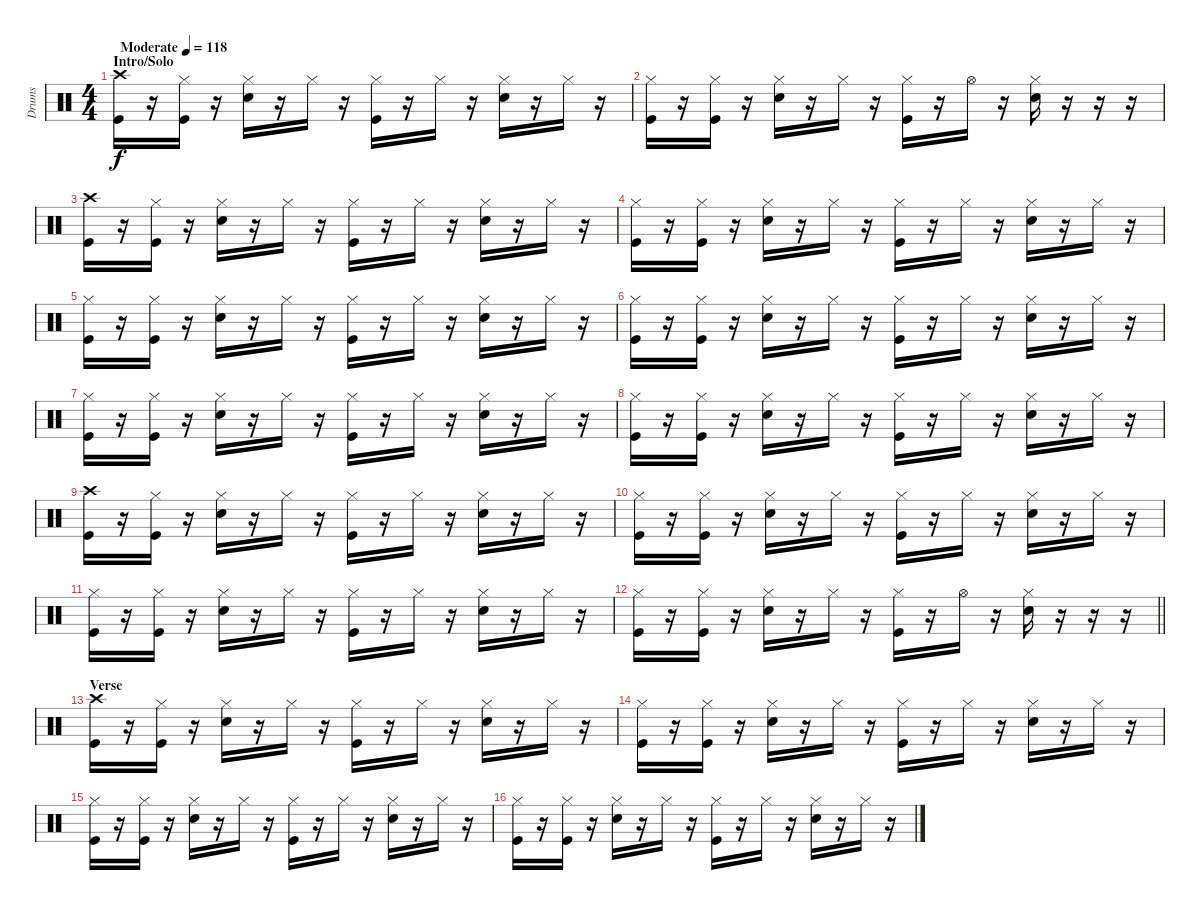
\track ("Drums" "Drums") {instrument percussion}
\staff {score}
\articulation defaults
\ts (4 4)
\section ("" "Intro/Solo")
\tempo (118 "Moderate")
\clef neutral
\ks c
("Crash high (hit)" "Kick (hit)").16{dy f} r.16 ("Hi-Hat (closed)" "Kick (hit)").16 r.16 ("Hi-Hat (closed)" "Snare (hit) 2").16 r.16 "Hi-Hat (closed)".16 r.16 ("Hi-Hat (closed)" "Kick (hit)").16 r.16 "Hi-Hat (closed)".16 r.16 ("Hi-Hat (closed)" "Snare (hit) 2").16 r.16 "Hi-Hat (closed)".16 r.16 |
("Hi-Hat (closed)" "Kick (hit)").16 r.16 ("Hi-Hat (closed)" "Kick (hit)").16 r.16 ("Hi-Hat (closed)" "Snare (hit) 2").16 r.16 "Hi-Hat (closed)".16 r.16 ("Hi-Hat (closed)" "Kick (hit)").16 r.16 "Hi-Hat (open)".16 r.16 ("Hi-Hat (closed)" "Snare (hit) 2").16 r.16 r.16 r.16 |
("Crash high (hit)" "Kick (hit)").16 r.16 ("Hi-Hat (closed)" "Kick (hit)").16 r.16 ("Hi-Hat (closed)" "Snare (hit) 2").16 r.16 "Hi-Hat (closed)".16 r.16 ("Hi-Hat (closed)" "Kick (hit)").16 r.16 "Hi-Hat (closed)".16 r.16 ("Hi-Hat (closed)" "Snare (hit) 2").16 r.16 "Hi-Hat (closed)".16 r.16 |
("Hi-Hat (closed)" "Kick (hit)").16 r.16 ("Hi-Hat (closed)" "Kick (hit)").16 r.16 ("Hi-Hat (closed)" "Snare (hit) 2").16 r.16 "Hi-Hat (closed)".16 r.16 ("Hi-Hat (closed)" "Kick (hit)").16 r.16 "Hi-Hat (closed)".16 r.16 ("Hi-Hat (closed)" "Snare (hit) 2").16 r.16 "Hi-Hat (closed)".16 r.16 |
("Hi-Hat (closed)" "Kick (hit)").16 r.16 ("Hi-Hat (closed)" "Kick (hit)").16 r.16 ("Hi-Hat (closed)" "Snare (hit) 2").16 r.16 "Hi-Hat (closed)".16 r.16 ("Hi-Hat (closed)" "Kick (hit)").16 r.16 "Hi-Hat (closed)".16 r.16 ("Hi-Hat (closed)" "Snare (hit) 2").16 r.16 "Hi-Hat (closed)".16 r.16 |
("Hi-Hat (closed)" "Kick (hit)").16 r.16 ("Hi-Hat (closed)" "Kick (hit)").16 r.16 ("Hi-Hat (closed)" "Snare (hit) 2").16 r.16 "Hi-Hat (closed)".16 r.16 ("Hi-Hat (closed)" "Kick (hit)").16 r.16 "Hi-Hat (closed)".16 r.16 ("Hi-Hat (closed)" "Snare (hit) 2").16 r.16 "Hi-Hat (closed)".16 r.16 |
("Hi-Hat (closed)" "Kick (hit)").16 r.16 ("Hi-Hat (closed)" "Kick (hit)").16 r.16 ("Hi-Hat (closed)" "Snare (hit) 2").16 r.16 "Hi-Hat (closed)".16 r.16 ("Hi-Hat (closed)" "Kick (hit)").16 r.16 "Hi-Hat (closed)".16 r.16 ("Hi-Hat (closed)" "Snare (hit) 2").16 r.16 "Hi-Hat (closed)".16 r.16 |
("Hi-Hat (closed)" "Kick (hit)").16 r.16 ("Hi-Hat (closed)" "Kick (hit)").16 r.16 ("Hi-Hat (closed)" "Snare (hit) 2").16 r.16 "Hi-Hat (closed)".16 r.16 ("Hi-Hat (closed)" "Kick (hit)").16 r.16 "Hi-Hat (closed)".16 r.16 ("Hi-Hat (closed)" "Snare (hit) 2").16 r.16 "Hi-Hat (closed)".16 r.16 |
("Crash high (hit)" "Kick (hit)").16 r.16 ("Hi-Hat (closed)" "Kick (hit)").16 r.16 ("Hi-Hat (closed)" "Snare (hit) 2").16 r.16 "Hi-Hat (closed)".16 r.16 ("Hi-Hat (closed)" "Kick (hit)").16 r.16 "Hi-Hat (closed)".16 r.16 ("Hi-Hat (closed)" "Snare (hit) 2").16 r.16 "Hi-Hat (closed)".16 r.16 |
("Hi-Hat (closed)" "Kick (hit)").16 r.16 ("Hi-Hat (closed)" "Kick (hit)").16 r.16 ("Hi-Hat (closed)" "Snare (hit) 2").16 r.16 "Hi-Hat (closed)".16 r.16 ("Hi-Hat (closed)" "Kick (hit)").16 r.16 "Hi-Hat (closed)".16 r.16 ("Hi-Hat (closed)" "Snare (hit) 2").16 r.16 "Hi-Hat (closed)".16 r.16 |
("Hi-Hat (closed)" "Kick (hit)").16 r.16 ("Hi-Hat (closed)" "Kick (hit)").16 r.16 ("Hi-Hat (closed)" "Snare (hit) 2").16 r.16 "Hi-Hat (closed)".16 r.16 ("Hi-Hat (closed)" "Kick (hit)").16 r.16 "Hi-Hat (closed)".16 r.16 ("Hi-Hat (closed)" "Snare (hit) 2").16 r.16 "Hi-Hat (closed)".16 r.16 |
\barLineRight lightlight
("Hi-Hat (closed)" "Kick (hit)").16 r.16 ("Hi-Hat (closed)" "Kick (hit)").16 r.16 ("Hi-Hat (closed)" "Snare (hit) 2").16 r.16 "Hi-Hat (closed)".16 r.16 ("Hi-Hat (closed)" "Kick (hit)").16 r.16 "Hi-Hat (open)".16 r.16 ("Hi-Hat (closed)" "Snare (hit) 2").16 r.16 r.16 r.16 |
\section ("" "Verse")
("Crash high (hit)" "Kick (hit)").16 r.16 ("Hi-Hat (closed)" "Kick (hit)").16 r.16 ("Hi-Hat (closed)" "Snare (hit) 2").16 r.16 "Hi-Hat (closed)".16 r.16 ("Hi-Hat (closed)" "Kick (hit)").16 r.16 "Hi-Hat (closed)".16 r.16 ("Hi-Hat (closed)" "Snare (hit) 2").16 r.16 "Hi-Hat (closed)".16 r.16 |
("Hi-Hat (closed)" "Kick (hit)").16 r.16 ("Hi-Hat (closed)" "Kick (hit)").16 r.16 ("Hi-Hat (closed)" "Snare (hit) 2").16 r.16 "Hi-Hat (closed)".16 r.16 ("Hi-Hat (closed)" "Kick (hit)").16 r.16 "Hi-Hat (closed)".16 r.16 ("Hi-Hat (closed)" "Snare (hit) 2").16 r.16 "Hi-Hat (closed)".16 r.16 |
("Hi-Hat (closed)" "Kick (hit)").16 r.16 ("Hi-Hat (closed)" "Kick (hit)").16 r.16 ("Hi-Hat (closed)" "Snare (hit) 2").16 r.16 "Hi-Hat (closed)".16 r.16 ("Hi-Hat (closed)" "Kick (hit)").16 r.16 "Hi-Hat (closed)".16 r.16 ("Hi-Hat (closed)" "Snare (hit) 2").16 r.16 "Hi-Hat (closed)".16 r.16 |
("Hi-Hat (closed)" "Kick (hit)").16 r.16 ("Hi-Hat (closed)" "Kick (hit)").16 r.16 ("Hi-Hat (closed)" "Snare (hit) 2").16 r.16 "Hi-Hat (closed)".16 r.16 ("Hi-Hat (closed)" "Kick (hit)").16 r.16 "Hi-Hat (closed)".16 r.16 ("Hi-Hat (closed)" "Snare (hit) 2").16 r.16 "Hi-Hat (closed)".16 r.16
